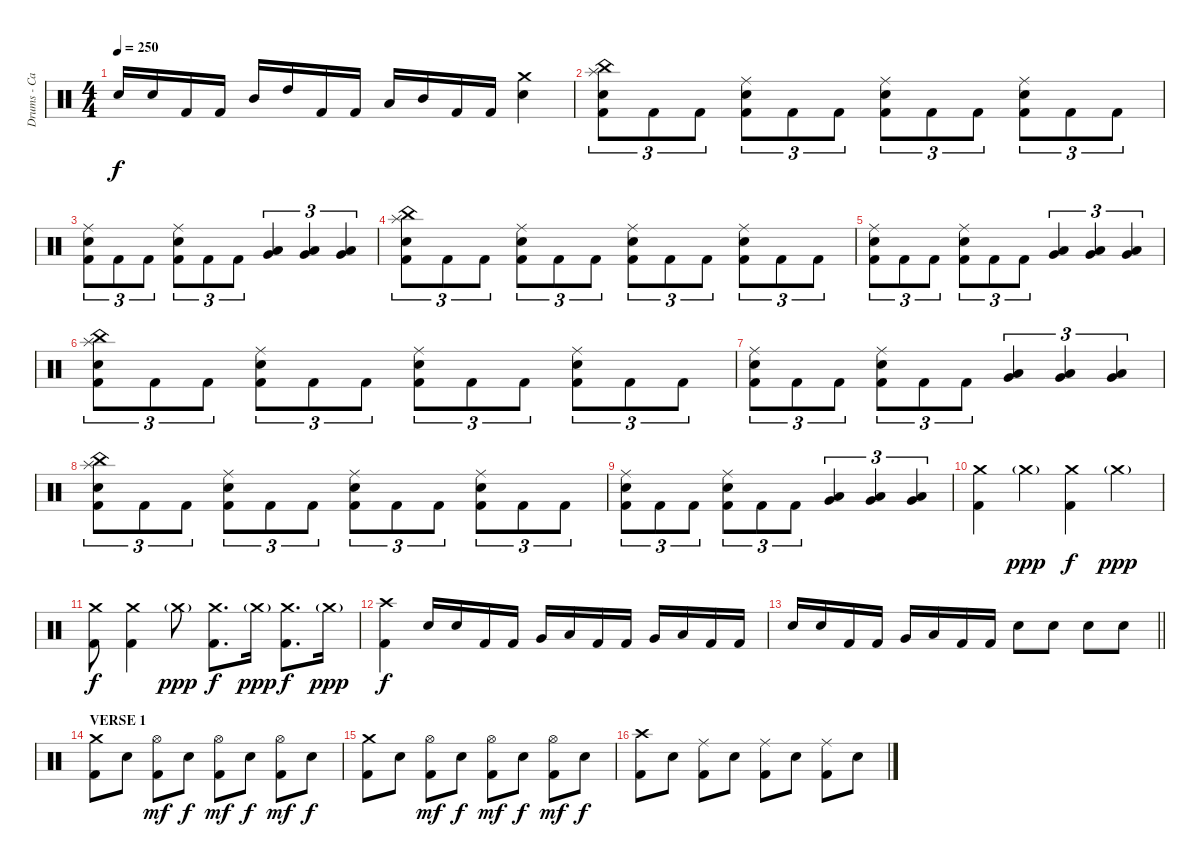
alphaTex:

\track ("Drums - Carlos Cruz" "Drums - Ca") {instrument percussion}
\staff {score}
\articulation defaults
\ts (4 4)
\tempo 250
\clef neutral
\ks c "Snare (hit) 2".16{dy f} "Snare (hit) 2".16 "Kick (hit) 2".16 "Kick (hit) 2".16 "Mid Tom (hit)".16 "High Tom (hit)".16 "Kick (hit) 2".16 "Kick (hit) 2".16 "Low Tom (hit)".16 "Mid Tom (hit)".16 "Kick (hit) 2".16 "Kick (hit) 2".16
("Crash medium (hit)" "Snare (hit) 2").4 |
("China (hit)" "Splash (hit)" "Snare (hit) 2" "Kick (hit) 2").8{tu (3 2)} "Kick (hit) 2".8{tu (3 2)} "Kick (hit) 2".8{tu (3 2)} ("Ride (middle)" "Snare (hit) 2" "Kick (hit) 2").8{tu (3 2)} "Kick (hit) 2".8{tu (3 2)} "Kick (hit) 2".8{tu (3 2)} ("Ride (middle)" "Snare (hit) 2" "Kick (hit) 2").8{tu (3 2)} "Kick (hit) 2".8{tu (3 2)} "Kick (hit) 2".8{tu (3 2)} ("Ride (middle)" "Snare (hit) 2" "Kick (hit) 2").8{tu (3 2)} "Kick (hit) 2".8{tu (3 2)} "Kick (hit) 2".8{tu (3 2)} |
("Ride (middle)" "Snare (hit) 2" "Kick (hit) 2").8{tu (3 2)} "Kick (hit) 2".8{tu (3 2)} "Kick (hit) 2".8{tu (3 2)} ("Ride (middle)" "Snare (hit) 2" "Kick (hit) 2").8{tu (3 2)} "Kick (hit) 2".8{tu (3 2)} "Kick (hit) 2".8{tu (3 2)} ("Low Tom (hit)" "Very Low Tom (hit)").4{tu (3 2)} ("Low Tom (hit)" "Very Low Tom (hit)").4{tu (3 2)} ("Low Tom (hit)" "Very Low Tom (hit)").4{tu (3 2)} |
("China (hit)" "Splash (hit)" "Snare (hit) 2" "Kick (hit) 2").8{tu (3 2)} "Kick (hit) 2".8{tu (3 2)} "Kick (hit) 2".8{tu (3 2)} ("Ride (middle)" "Snare (hit) 2" "Kick (hit) 2").8{tu (3 2)} "Kick (hit) 2".8{tu (3 2)} "Kick (hit) 2".8{tu (3 2)} ("Ride (middle)" "Snare (hit) 2" "Kick (hit) 2").8{tu (3 2)} "Kick (hit) 2".8{tu (3 2)} "Kick (hit) 2".8{tu (3 2)} ("Ride (middle)" "Snare (hit) 2" "Kick (hit) 2").8{tu (3 2)} "Kick (hit) 2".8{tu (3 2)} "Kick (hit) 2".8{tu (3 2)} |
("Ride (middle)" "Snare (hit) 2" "Kick (hit) 2").8{tu (3 2)} "Kick (hit) 2".8{tu (3 2)} "Kick (hit) 2".8{tu (3 2)} ("Ride (middle)" "Snare (hit) 2" "Kick (hit) 2").8{tu (3 2)} "Kick (hit) 2".8{tu (3 2)} "Kick (hit) 2".8{tu (3 2)} ("Low Tom (hit)" "Very Low Tom (hit)").4{tu (3 2)} ("Low Tom (hit)" "Very Low Tom (hit)").4{tu (3 2)} ("Low Tom (hit)" "Very Low Tom (hit)").4{tu (3 2)} |
("China (hit)" "Splash (hit)" "Snare (hit) 2" "Kick (hit) 2").8{tu (3 2)} "Kick (hit) 2".8{tu (3 2)} "Kick (hit) 2".8{tu (3 2)} ("Ride (middle)" "Snare (hit) 2" "Kick (hit) 2").8{tu (3 2)} "Kick (hit) 2".8{tu (3 2)} "Kick (hit) 2".8{tu (3 2)} ("Ride (middle)" "Snare (hit) 2" "Kick (hit) 2").8{tu (3 2)} "Kick (hit) 2".8{tu (3 2)} "Kick (hit) 2".8{tu (3 2)} ("Ride (middle)" "Snare (hit) 2" "Kick (hit) 2").8{tu (3 2)} "Kick (hit) 2".8{tu (3 2)} "Kick (hit) 2".8{tu (3 2)} |
("Ride (middle)" "Snare (hit) 2" "Kick (hit) 2").8{tu (3 2)} "Kick (hit) 2".8{tu (3 2)} "Kick (hit) 2".8{tu (3 2)} ("Ride (middle)" "Snare (hit) 2" "Kick (hit) 2").8{tu (3 2)} "Kick (hit) 2".8{tu (3 2)} "Kick (hit) 2".8{tu (3 2)} ("Low Tom (hit)" "Very Low Tom (hit)").4{tu (3 2)} ("Low Tom (hit)" "Very Low Tom (hit)").4{tu (3 2)} ("Low Tom (hit)" "Very Low Tom (hit)").4{tu (3 2)} |
("China (hit)" "Splash (hit)" "Snare (hit) 2" "Kick (hit) 2").8{tu (3 2)} "Kick (hit) 2".8{tu (3 2)} "Kick (hit) 2".8{tu (3 2)} ("Ride (middle)" "Snare (hit) 2" "Kick (hit) 2").8{tu (3 2)} "Kick (hit) 2".8{tu (3 2)} "Kick (hit) 2".8{tu (3 2)} ("Ride (middle)" "Snare (hit) 2" "Kick (hit) 2").8{tu (3 2)} "Kick (hit) 2".8{tu (3 2)} "Kick (hit) 2".8{tu (3 2)} ("Ride (middle)" "Snare (hit) 2" "Kick (hit) 2").8{tu (3 2)} "Kick (hit) 2".8{tu (3 2)} "Kick (hit) 2".8{tu (3 2)} |
("Ride (middle)" "Snare (hit) 2" "Kick (hit) 2").8{tu (3 2)} "Kick (hit) 2".8{tu (3 2)} "Kick (hit) 2".8{tu (3 2)} ("Ride (middle)" "Snare (hit) 2" "Kick (hit) 2").8{tu (3 2)} "Kick (hit) 2".8{tu (3 2)} "Kick (hit) 2".8{tu (3 2)} ("Low Tom (hit)" "Very Low Tom (hit)").4{tu (3 2)} ("Low Tom (hit)" "Very Low Tom (hit)").4{tu (3 2)} ("Low Tom (hit)" "Very Low Tom (hit)").4{tu (3 2)} |
("Crash medium (hit)" "Kick (hit) 2").4 "Crash medium (hit)"{g}.4{dy ppp} ("Crash medium (hit)" "Kick (hit) 2").4{dy f} "Crash medium (hit)"{g}.4{dy ppp} |
("Crash medium (hit)" "Kick (hit) 2").8{dy f} ("Crash medium (hit)" "Kick (hit) 2").4 "Crash medium (hit)"{g}.8{dy ppp} ("Crash medium (hit)" "Kick (hit) 2").8{d dy f} "Crash medium (hit)"{g}.16{dy ppp} ("Crash medium (hit)" "Kick (hit) 2").8{d dy f} "Crash medium (hit)"{g}.16{dy ppp} |
("Crash high (hit)" "Kick (hit) 2").4{dy f} "Snare (hit) 2".16 "Snare (hit) 2".16 "Kick (hit) 2".16 "Kick (hit) 2".16 "Very Low Tom (hit)".16 "Low Tom (hit)".16 "Kick (hit) 2".16 "Kick (hit) 2".16 "Very Low Tom (hit)".16 "Low Tom (hit)".16 "Kick (hit) 2".16 "Kick (hit) 2".16 |
\barLineRight lightlight "Snare (hit) 2".16 "Snare (hit) 2".16 "Kick (hit) 2".16 "Kick (hit) 2".16 "Very Low Tom (hit)".16 "Low Tom (hit)".16 "Kick (hit) 2".16 "Kick (hit) 2".16 "Snare (hit) 2".8 "Snare (hit) 2".8 "Snare (hit) 2".8 "Snare (hit) 2".8
|
\section ("" "VERSE 1")
("Crash medium (hit)" "Kick (hit) 2").8 "Snare (hit) 2".8 ("Hi-Hat (open)" "Kick (hit) 2").8{dy mf} "Snare (hit) 2".8{dy f} ("Hi-Hat (open)" "Kick (hit) 2").8{dy mf} "Snare (hit) 2".8{dy f} ("Hi-Hat (open)" "Kick (hit) 2").8{dy mf} "Snare (hit) 2".8{dy f} |
("Crash medium (hit)" "Kick (hit) 2").8 "Snare (hit) 2".8 ("Hi-Hat (open)" "Kick (hit) 2").8{dy mf} "Snare (hit) 2".8{dy f} ("Hi-Hat (open)" "Kick (hit) 2").8{dy mf} "Snare (hit) 2".8{dy f} ("Hi-Hat (open)" "Kick (hit) 2").8{dy mf} "Snare (hit) 2".8{dy f} |
("Crash high (hit)" "Kick (hit) 2").8 "Snare (hit) 2".8 ("Ride (middle)" "Kick (hit) 2").8 "Snare (hit) 2".8 ("Ride (middle)" "Kick (hit) 2").8 "Snare (hit) 2".8 ("Ride (middle)" "Kick (hit) 2").8 "Snare (hit) 2".8
